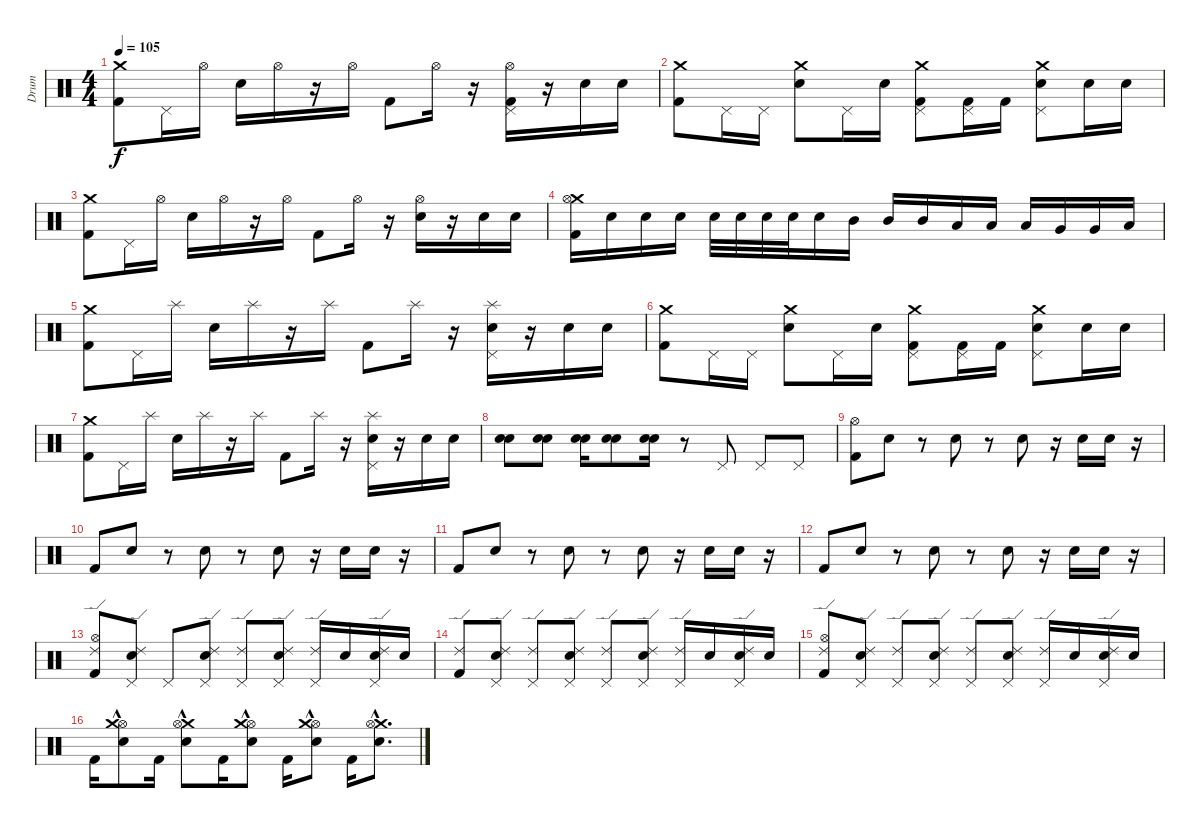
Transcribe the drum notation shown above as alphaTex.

\track ("Drum" "Drum") {instrument percussion}
\staff {score}
\articulation defaults
\ts (4 4)
\tempo 105
\clef neutral
\ks c
("Crash medium (hit)" "Kick (hit) 2").8{dy f} "Pedal Hi-Hat (hit)".16 "Hi-Hat (open)".16 "Electric Snare (hit)".16 "Hi-Hat (open)".16 r.16 "Hi-Hat (open)".16 "Kick (hit) 2".8 "Hi-Hat (open)".16 r.16 ("Pedal Hi-Hat (hit)" "Kick (hit) 2" "Hi-Hat (open)").16 r.16 "Electric Snare (hit)".16 "Electric Snare (hit)".16 |
("Kick (hit) 2" "Crash medium (hit)").8 "Pedal Hi-Hat (hit)".16 "Pedal Hi-Hat (hit)".16 ("Electric Snare (hit)" "Crash medium (hit)").8 "Pedal Hi-Hat (hit)".16 "Electric Snare (hit)".16 ("Pedal Hi-Hat (hit)" "Kick (hit) 2" "Crash medium (hit)").8 ("Pedal Hi-Hat (hit)" "Kick (hit) 2").16 "Kick (hit) 2".16 ("Pedal Hi-Hat (hit)" "Electric Snare (hit)" "Crash medium (hit)").8 "Electric Snare (hit)".16 "Electric Snare (hit)".16 |
("Crash medium (hit)" "Kick (hit) 2").8 "Pedal Hi-Hat (hit)".16 "Hi-Hat (open)".16 "Electric Snare (hit)".16 "Hi-Hat (open)".16 r.16 "Hi-Hat (open)".16 "Kick (hit) 2".8 "Hi-Hat (open)".16 r.16 ("Electric Snare (hit)" "Hi-Hat (open)").16 r.16 "Electric Snare (hit)".16 "Electric Snare (hit)".16 |
("Crash medium (hit)" "Hi-Hat (open)" "Kick (hit) 2").16 "Electric Snare (hit)".16 "Electric Snare (hit)".16 "Electric Snare (hit)".16 "Electric Snare (hit)".32 "Electric Snare (hit)".32 "Electric Snare (hit)".32 "Electric Snare (hit)".32 "Electric Snare (hit)".16 "Mid Tom (hit)".16 "Mid Tom (hit)".16 "Mid Tom (hit)".16 "Low Tom (hit)".16 "Low Tom (hit)".16 "Low Tom (hit)".16 "Very Low Tom (hit)".16 "Very Low Tom (hit)".16 "Low Floor Tom (hit)".16 |
("Crash medium (hit)" "Kick (hit) 2").8 "Pedal Hi-Hat (hit)".16 "Splash (hit)".16 "Electric Snare (hit)".16 "Splash (hit)".16 r.16 "Splash (hit)".16 "Kick (hit) 2".8 "Splash (hit)".16 r.16 ("Electric Snare (hit)" "Splash (hit)" "Pedal Hi-Hat (hit)").16 r.16 "Electric Snare (hit)".16 "Electric Snare (hit)".16 |
("Kick (hit) 2" "Crash medium (hit)").8 "Pedal Hi-Hat (hit)".16 "Pedal Hi-Hat (hit)".16 ("Electric Snare (hit)" "Crash medium (hit)").8 "Pedal Hi-Hat (hit)".16 "Electric Snare (hit)".16 ("Pedal Hi-Hat (hit)" "Kick (hit) 2" "Crash medium (hit)").8 ("Pedal Hi-Hat (hit)" "Kick (hit) 2").16 "Kick (hit) 2".16 ("Pedal Hi-Hat (hit)" "Electric Snare (hit)" "Crash medium (hit)").8 "Electric Snare (hit)".16 "Electric Snare (hit)".16 |
("Crash medium (hit)" "Kick (hit) 2").8 "Pedal Hi-Hat (hit)".16 "Splash (hit)".16 "Electric Snare (hit)".16 "Splash (hit)".16 r.16 "Splash (hit)".16 "Kick (hit) 2".8 "Splash (hit)".16 r.16 ("Electric Snare (hit)" "Splash (hit)" "Pedal Hi-Hat (hit)").16 r.16 "Electric Snare (hit)".16 "Electric Snare (hit)".16 |
("Snare (hit) 2" "Electric Snare (hit)").8 ("Snare (hit) 2" "Electric Snare (hit)").8 ("Snare (hit) 2" "Electric Snare (hit)").16 ("Snare (hit) 2" "Electric Snare (hit)").8 ("Snare (hit) 2" "Electric Snare (hit)").16 r.8 "Pedal Hi-Hat (hit)".8 "Pedal Hi-Hat (hit)".8 "Pedal Hi-Hat (hit)".8 |
("Kick (hit) 2" "Hi-Hat (open)").8 "Snare (hit) 2".8 r.8 "Snare (hit) 2".8 r.8 "Snare (hit) 2".8 r.16 "Snare (hit) 2".16 "Snare (hit) 2".16 r.16 |
"Kick (hit) 2".8 "Snare (hit) 2".8 r.8 "Snare (hit) 2".8 r.8 "Snare (hit) 2".8 r.16 "Snare (hit) 2".16 "Snare (hit) 2".16 r.16 |
"Kick (hit) 2".8 "Snare (hit) 2".8 r.8 "Snare (hit) 2".8 r.8 "Snare (hit) 2".8 r.16 "Snare (hit) 2".16 "Snare (hit) 2".16 r.16 |
"Kick (hit) 2".8 "Snare (hit) 2".8 r.8 "Snare (hit) 2".8 r.8 "Snare (hit) 2".8 r.16 "Snare (hit) 2".16 "Snare (hit) 2".16 r.16 |
("Ride (edge) 2" "Kick (hit) 2" "Hi-Hat (open)").8 ("Pedal Hi-Hat (hit)" "Ride (edge) 2" "Snare (hit) 2").8 "Pedal Hi-Hat (hit)".8 ("Pedal Hi-Hat (hit)" "Ride (edge) 2" "Snare (hit) 2").8 ("Pedal Hi-Hat (hit)" "Ride (edge) 2").8 ("Pedal Hi-Hat (hit)" "Ride (edge) 2" "Snare (hit) 2").8 ("Pedal Hi-Hat (hit)" "Ride (edge) 2").16 "Snare (hit) 2".16 ("Snare (hit) 2" "Pedal Hi-Hat (hit)" "Ride (edge) 2").16 "Snare (hit) 2".16 |
("Ride (edge) 2" "Kick (hit) 2").8 ("Pedal Hi-Hat (hit)" "Ride (edge) 2" "Snare (hit) 2").8 ("Pedal Hi-Hat (hit)" "Ride (edge) 2").8 ("Pedal Hi-Hat (hit)" "Ride (edge) 2" "Snare (hit) 2").8 ("Pedal Hi-Hat (hit)" "Ride (edge) 2").8 ("Pedal Hi-Hat (hit)" "Ride (edge) 2" "Snare (hit) 2").8 ("Pedal Hi-Hat (hit)" "Ride (edge) 2").16 "Snare (hit) 2".16 ("Snare (hit) 2" "Pedal Hi-Hat (hit)" "Ride (edge) 2").16 "Snare (hit) 2".16 |
("Ride (edge) 2" "Kick (hit) 2" "Hi-Hat (open)").8 ("Pedal Hi-Hat (hit)" "Ride (edge) 2" "Snare (hit) 2").8 ("Pedal Hi-Hat (hit)" "Ride (edge) 2").8 ("Pedal Hi-Hat (hit)" "Ride (edge) 2" "Snare (hit) 2").8 ("Pedal Hi-Hat (hit)" "Ride (edge) 2").8 ("Pedal Hi-Hat (hit)" "Ride (edge) 2" "Snare (hit) 2").8 ("Pedal Hi-Hat (hit)" "Ride (edge) 2").16 "Snare (hit) 2".16 ("Snare (hit) 2" "Pedal Hi-Hat (hit)" "Ride (edge) 2").16 "Snare (hit) 2".16 |
"Kick (hit) 2".16 ("Electric Snare (hit)"{hac} "Hi-Hat (open)"{hac} "Crash medium (hit)"{hac}).8 "Kick (hit) 2".16 ("Electric Snare (hit)"{hac} "Crash medium (hit)"{hac} "Hi-Hat (open)"{hac}).8 "Kick (hit) 2".16 ("Electric Snare (hit)"{hac} "Hi-Hat (open)"{hac} "Crash medium (hit)"{hac}).8 "Kick (hit) 2".16 ("Electric Snare (hit)"{hac} "Hi-Hat (open)"{hac} "Crash medium (hit)"{hac}).8 "Kick (hit) 2".16 ("Crash medium (hit)"{hac} "Hi-Hat (open)"{hac} "Electric Snare (hit)"{hac}).8{d}
